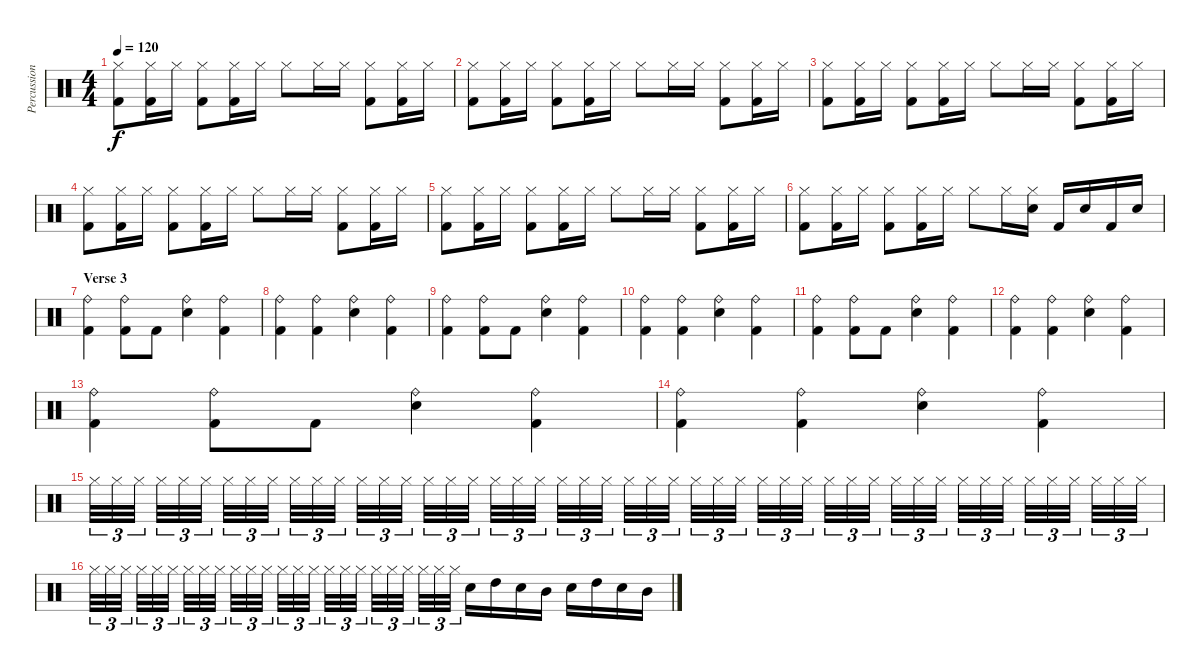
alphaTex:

\track ("Percussion" "Percussion") {instrument percussion}
\staff {score}
\articulation defaults
\ts (4 4)
\tempo 120
\clef neutral
\ks c
("Hi-Hat (closed)" "Kick (hit) 2").8{dy f} ("Hi-Hat (closed)" "Kick (hit) 2").16 "Hi-Hat (closed)".16 ("Hi-Hat (closed)" "Kick (hit) 2").8 ("Hi-Hat (closed)" "Kick (hit) 2").16 "Hi-Hat (closed)".16 "Hi-Hat (closed)".8 "Hi-Hat (closed)".16 "Hi-Hat (closed)".16 ("Hi-Hat (closed)" "Kick (hit) 2").8 ("Hi-Hat (closed)" "Kick (hit) 2").16 "Hi-Hat (closed)".16 |
("Hi-Hat (closed)" "Kick (hit) 2").8 ("Hi-Hat (closed)" "Kick (hit) 2").16 "Hi-Hat (closed)".16 ("Hi-Hat (closed)" "Kick (hit) 2").8 ("Hi-Hat (closed)" "Kick (hit) 2").16 "Hi-Hat (closed)".16 "Hi-Hat (closed)".8 "Hi-Hat (closed)".16 "Hi-Hat (closed)".16 ("Hi-Hat (closed)" "Kick (hit) 2").8 ("Hi-Hat (closed)" "Kick (hit) 2").16 "Hi-Hat (closed)".16 |
("Hi-Hat (closed)" "Kick (hit) 2").8 ("Hi-Hat (closed)" "Kick (hit) 2").16 "Hi-Hat (closed)".16 ("Hi-Hat (closed)" "Kick (hit) 2").8 ("Hi-Hat (closed)" "Kick (hit) 2").16 "Hi-Hat (closed)".16 "Hi-Hat (closed)".8 "Hi-Hat (closed)".16 "Hi-Hat (closed)".16 ("Hi-Hat (closed)" "Kick (hit) 2").8 ("Hi-Hat (closed)" "Kick (hit) 2").16 "Hi-Hat (closed)".16 |
("Hi-Hat (closed)" "Kick (hit) 2").8 ("Hi-Hat (closed)" "Kick (hit) 2").16 "Hi-Hat (closed)".16 ("Hi-Hat (closed)" "Kick (hit) 2").8 ("Hi-Hat (closed)" "Kick (hit) 2").16 "Hi-Hat (closed)".16 "Hi-Hat (closed)".8 "Hi-Hat (closed)".16 "Hi-Hat (closed)".16 ("Hi-Hat (closed)" "Kick (hit) 2").8 ("Hi-Hat (closed)" "Kick (hit) 2").16 "Hi-Hat (closed)".16 |
("Hi-Hat (closed)" "Kick (hit) 2").8 ("Hi-Hat (closed)" "Kick (hit) 2").16 "Hi-Hat (closed)".16 ("Hi-Hat (closed)" "Kick (hit) 2").8 ("Hi-Hat (closed)" "Kick (hit) 2").16 "Hi-Hat (closed)".16 "Hi-Hat (closed)".8 "Hi-Hat (closed)".16 "Hi-Hat (closed)".16 ("Hi-Hat (closed)" "Kick (hit) 2").8 ("Hi-Hat (closed)" "Kick (hit) 2").16 "Hi-Hat (closed)".16 |
("Hi-Hat (closed)" "Kick (hit) 2").8 ("Hi-Hat (closed)" "Kick (hit) 2").16 "Hi-Hat (closed)".16 ("Hi-Hat (closed)" "Kick (hit) 2").8 ("Hi-Hat (closed)" "Kick (hit) 2").16 "Hi-Hat (closed)".16 "Hi-Hat (closed)".8 "Hi-Hat (closed)".16 ("Hi-Hat (closed)" "Electric Snare (hit)").16 "Kick (hit) 2".16 "Electric Snare (hit)".16 "Kick (hit) 2".16 "Electric Snare (hit)".16 |
\section ("" "Verse 3")
("Ride (bell)" "Kick (hit) 2").4 ("Ride (bell)" "Kick (hit) 2").8 "Kick (hit) 2".8 ("Ride (bell)" "Electric Snare (hit)").4 ("Ride (bell)" "Kick (hit) 2").4 |
("Ride (bell)" "Kick (hit) 2").4 ("Ride (bell)" "Kick (hit) 2").4 ("Ride (bell)" "Electric Snare (hit)").4 ("Ride (bell)" "Kick (hit) 2").4 |
("Ride (bell)" "Kick (hit) 2").4 ("Ride (bell)" "Kick (hit) 2").8 "Kick (hit) 2".8 ("Ride (bell)" "Electric Snare (hit)").4 ("Ride (bell)" "Kick (hit) 2").4 |
("Ride (bell)" "Kick (hit) 2").4 ("Ride (bell)" "Kick (hit) 2").4 ("Ride (bell)" "Electric Snare (hit)").4 ("Ride (bell)" "Kick (hit) 2").4 |
("Ride (bell)" "Kick (hit) 2").4 ("Ride (bell)" "Kick (hit) 2").8 "Kick (hit) 2".8 ("Ride (bell)" "Electric Snare (hit)").4 ("Ride (bell)" "Kick (hit) 2").4 |
("Ride (bell)" "Kick (hit) 2").4 ("Ride (bell)" "Kick (hit) 2").4 ("Ride (bell)" "Electric Snare (hit)").4 ("Ride (bell)" "Kick (hit) 2").4 |
("Ride (bell)" "Kick (hit) 2").4 ("Ride (bell)" "Kick (hit) 2").8 "Kick (hit) 2".8 ("Ride (bell)" "Electric Snare (hit)").4 ("Ride (bell)" "Kick (hit) 2").4 |
("Ride (bell)" "Kick (hit) 2").4 ("Ride (bell)" "Kick (hit) 2").4 ("Ride (bell)" "Electric Snare (hit)").4 ("Ride (bell)" "Kick (hit) 2").4 |
"Hi-Hat (closed)".32{tu (3 2)} "Hi-Hat (closed)".32{tu (3 2)} "Hi-Hat (closed)".32{tu (3 2)} "Hi-Hat (closed)".32{tu (3 2)} "Hi-Hat (closed)".32{tu (3 2)} "Hi-Hat (closed)".32{tu (3 2)} "Hi-Hat (closed)".32{tu (3 2)} "Hi-Hat (closed)".32{tu (3 2)} "Hi-Hat (closed)".32{tu (3 2)} "Hi-Hat (closed)".32{tu (3 2)} "Hi-Hat (closed)".32{tu (3 2)} "Hi-Hat (closed)".32{tu (3 2)} "Hi-Hat (closed)".32{tu (3 2)} "Hi-Hat (closed)".32{tu (3 2)} "Hi-Hat (closed)".32{tu (3 2)} "Hi-Hat (closed)".32{tu (3 2)} "Hi-Hat (closed)".32{tu (3 2)} "Hi-Hat (closed)".32{tu (3 2)} "Hi-Hat (closed)".32{tu (3 2)} "Hi-Hat (closed)".32{tu (3 2)} "Hi-Hat (closed)".32{tu (3 2)} "Hi-Hat (closed)".32{tu (3 2)} "Hi-Hat (closed)".32{tu (3 2)} "Hi-Hat (closed)".32{tu (3 2)} "Hi-Hat (closed)".32{tu (3 2)} "Hi-Hat (closed)".32{tu (3 2)} "Hi-Hat (closed)".32{tu (3 2)} "Hi-Hat (closed)".32{tu (3 2)} "Hi-Hat (closed)".32{tu (3 2)} "Hi-Hat (closed)".32{tu (3 2)} "Hi-Hat (closed)".32{tu (3 2)} "Hi-Hat (closed)".32{tu (3 2)} "Hi-Hat (closed)".32{tu (3 2)} "Hi-Hat (closed)".32{tu (3 2)} "Hi-Hat (closed)".32{tu (3 2)} "Hi-Hat (closed)".32{tu (3 2)} "Hi-Hat (closed)".32{tu (3 2)} "Hi-Hat (closed)".32{tu (3 2)} "Hi-Hat (closed)".32{tu (3 2)} "Hi-Hat (closed)".32{tu (3 2)} "Hi-Hat (closed)".32{tu (3 2)} "Hi-Hat (closed)".32{tu (3 2)} "Hi-Hat (closed)".32{tu (3 2)} "Hi-Hat (closed)".32{tu (3 2)} "Hi-Hat (closed)".32{tu (3 2)} "Hi-Hat (closed)".32{tu (3 2)} "Hi-Hat (closed)".32{tu (3 2)} "Hi-Hat (closed)".32{tu (3 2)} |
"Hi-Hat (closed)".32{tu (3 2)} "Hi-Hat (closed)".32{tu (3 2)} "Hi-Hat (closed)".32{tu (3 2)} "Hi-Hat (closed)".32{tu (3 2)} "Hi-Hat (closed)".32{tu (3 2)} "Hi-Hat (closed)".32{tu (3 2)} "Hi-Hat (closed)".32{tu (3 2)} "Hi-Hat (closed)".32{tu (3 2)} "Hi-Hat (closed)".32{tu (3 2)} "Hi-Hat (closed)".32{tu (3 2)} "Hi-Hat (closed)".32{tu (3 2)} "Hi-Hat (closed)".32{tu (3 2)} "Hi-Hat (closed)".32{tu (3 2)} "Hi-Hat (closed)".32{tu (3 2)} "Hi-Hat (closed)".32{tu (3 2)} "Hi-Hat (closed)".32{tu (3 2)} "Hi-Hat (closed)".32{tu (3 2)} "Hi-Hat (closed)".32{tu (3 2)} "Hi-Hat (closed)".32{tu (3 2)} "Hi-Hat (closed)".32{tu (3 2)} "Hi-Hat (closed)".32{tu (3 2)} "Hi-Hat (closed)".32{tu (3 2)} "Hi-Hat (closed)".32{tu (3 2)} "Hi-Hat (closed)".32{tu (3 2)} "Electric Snare (hit)".16 "High Tom (hit)".16 "Electric Snare (hit)".16 "Mid Tom (hit)".16 "Electric Snare (hit)".16 "High Tom (hit)".16 "Electric Snare (hit)".16 "Mid Tom (hit)".16
